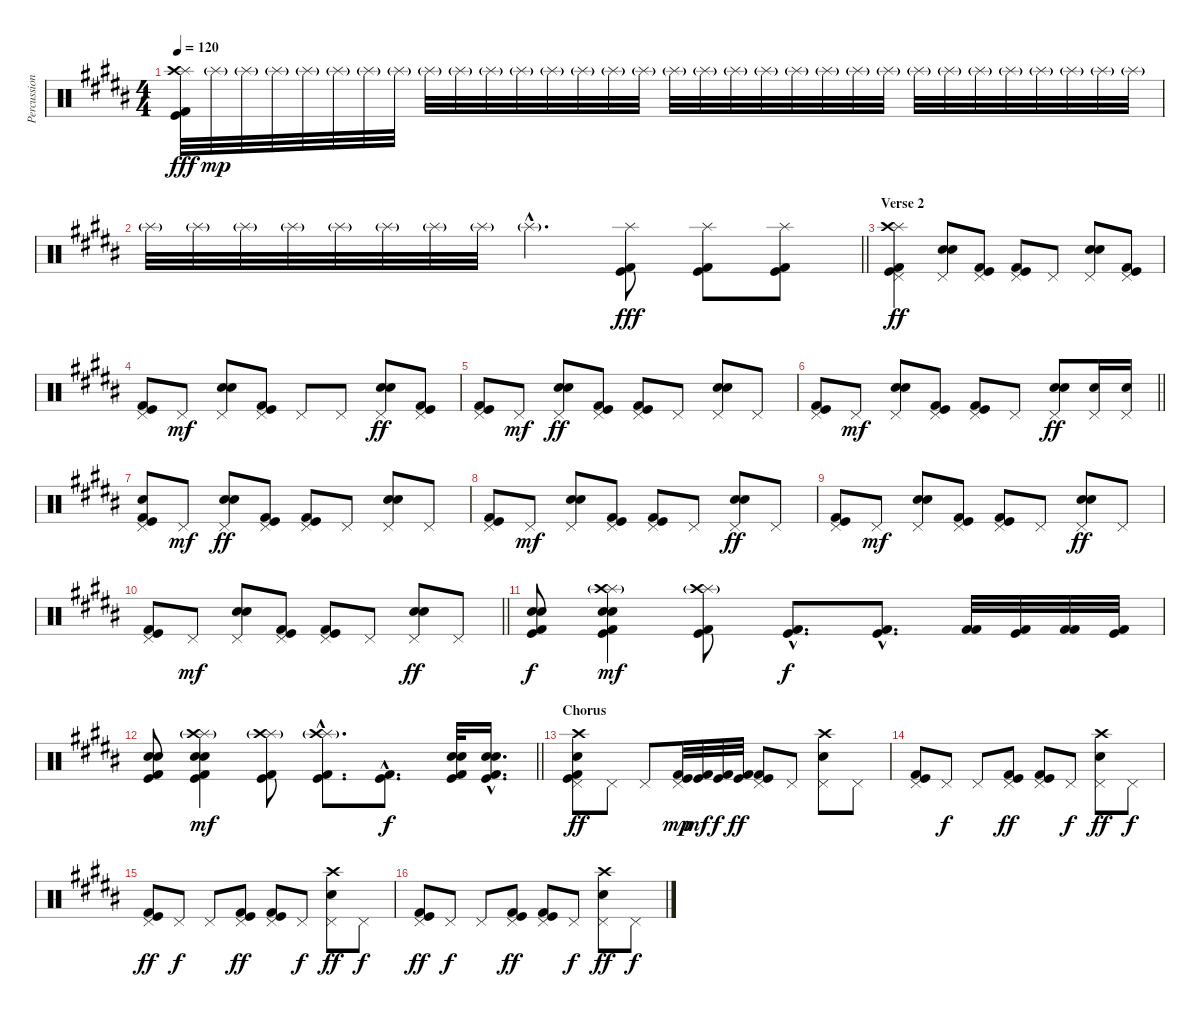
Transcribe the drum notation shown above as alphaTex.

\track ("Percussion" "Percussion") {instrument percussion}
\staff {score}
\articulation defaults
\ts (4 4)
\tempo 120
\clef neutral
\ks b
("Splash (hit)" "Crash high (hit)" "Kick (hit)" "Kick (hit) 2").32{dy fff} "Splash (hit)"{g}.32{dy mp} "Splash (hit)"{g}.32 "Splash (hit)"{g}.32 "Splash (hit)"{g}.32 "Splash (hit)"{g}.32 "Splash (hit)"{g}.32 "Splash (hit)"{g}.32 "Splash (hit)"{g}.32 "Splash (hit)"{g}.32 "Splash (hit)"{g}.32 "Splash (hit)"{g}.32 "Splash (hit)"{g}.32 "Splash (hit)"{g}.32 "Splash (hit)"{g}.32 "Splash (hit)"{g}.32 "Splash (hit)"{g}.32 "Splash (hit)"{g}.32 "Splash (hit)"{g}.32 "Splash (hit)"{g}.32 "Splash (hit)"{g}.32 "Splash (hit)"{g}.32 "Splash (hit)"{g}.32 "Splash (hit)"{g}.32 "Splash (hit)"{g}.32 "Splash (hit)"{g}.32 "Splash (hit)"{g}.32 "Splash (hit)"{g}.32 "Splash (hit)"{g}.32 "Splash (hit)"{g}.32 "Splash (hit)"{g}.32 "Splash (hit)"{g}.32 |
\barLineRight lightlight "Splash (hit)"{g}.32 "Splash (hit)"{g}.32 "Splash (hit)"{g}.32 "Splash (hit)"{g}.32 "Splash (hit)"{g}.32 "Splash (hit)"{g}.32 "Splash (hit)"{g}.32 "Splash (hit)"{g}.32 "Splash (hit)"{g hac}.4{d}
("Splash (hit)" "Kick (hit)" "Kick (hit) 2").8{dy fff} ("Splash (hit)" "Kick (hit)" "Kick (hit) 2").8 ("Splash (hit)" "Kick (hit)" "Kick (hit) 2").8 |
\section ("" "Verse 2")
("Splash (hit)" "Crash high (hit)" "Pedal Hi-Hat (hit)" "Kick (hit)" "Kick (hit) 2").4{dy ff} ("Electric Snare (hit)" "Snare (hit) 2" "Pedal Hi-Hat (hit)").8 ("Pedal Hi-Hat (hit)" "Kick (hit)" "Kick (hit) 2").8 ("Pedal Hi-Hat (hit)" "Kick (hit)" "Kick (hit) 2").8 "Pedal Hi-Hat (hit)".8 ("Electric Snare (hit)" "Snare (hit) 2" "Pedal Hi-Hat (hit)").8 ("Pedal Hi-Hat (hit)" "Kick (hit)" "Kick (hit) 2").8 |
("Pedal Hi-Hat (hit)" "Kick (hit)" "Kick (hit) 2").8 "Pedal Hi-Hat (hit)".8{dy mf} ("Electric Snare (hit)" "Snare (hit) 2" "Pedal Hi-Hat (hit)").8 ("Pedal Hi-Hat (hit)" "Kick (hit)" "Kick (hit) 2").8 "Pedal Hi-Hat (hit)".8 "Pedal Hi-Hat (hit)".8 ("Electric Snare (hit)" "Snare (hit) 2" "Pedal Hi-Hat (hit)").8{dy ff} ("Pedal Hi-Hat (hit)" "Kick (hit)" "Kick (hit) 2").8 |
("Pedal Hi-Hat (hit)" "Kick (hit)" "Kick (hit) 2").8 "Pedal Hi-Hat (hit)".8{dy mf} ("Electric Snare (hit)" "Snare (hit) 2" "Pedal Hi-Hat (hit)").8{dy ff} ("Pedal Hi-Hat (hit)" "Kick (hit)" "Kick (hit) 2").8 ("Pedal Hi-Hat (hit)" "Kick (hit)" "Kick (hit) 2").8 "Pedal Hi-Hat (hit)".8 ("Electric Snare (hit)" "Snare (hit) 2" "Pedal Hi-Hat (hit)").8 "Pedal Hi-Hat (hit)".8 |
\barLineRight lightlight
("Pedal Hi-Hat (hit)" "Kick (hit)" "Kick (hit) 2").8 "Pedal Hi-Hat (hit)".8{dy mf} ("Electric Snare (hit)" "Snare (hit) 2" "Pedal Hi-Hat (hit)").8 ("Pedal Hi-Hat (hit)" "Kick (hit)" "Kick (hit) 2").8 ("Pedal Hi-Hat (hit)" "Kick (hit)" "Kick (hit) 2").8 "Pedal Hi-Hat (hit)".8 ("Electric Snare (hit)" "Snare (hit) 2" "Pedal Hi-Hat (hit)").8{dy ff} ("Snare (hit) 2" "Pedal Hi-Hat (hit)").16 ("Snare (hit) 2" "Pedal Hi-Hat (hit)").16 |
("Snare (hit) 2" "Pedal Hi-Hat (hit)" "Kick (hit)" "Kick (hit) 2").8 "Pedal Hi-Hat (hit)".8{dy mf} ("Electric Snare (hit)" "Snare (hit) 2" "Pedal Hi-Hat (hit)").8{dy ff} ("Pedal Hi-Hat (hit)" "Kick (hit)" "Kick (hit) 2").8 ("Pedal Hi-Hat (hit)" "Kick (hit)" "Kick (hit) 2").8 "Pedal Hi-Hat (hit)".8 ("Electric Snare (hit)" "Snare (hit) 2" "Pedal Hi-Hat (hit)").8 "Pedal Hi-Hat (hit)".8 |
("Pedal Hi-Hat (hit)" "Kick (hit)" "Kick (hit) 2").8 "Pedal Hi-Hat (hit)".8{dy mf} ("Electric Snare (hit)" "Snare (hit) 2" "Pedal Hi-Hat (hit)").8 ("Pedal Hi-Hat (hit)" "Kick (hit)" "Kick (hit) 2").8 ("Pedal Hi-Hat (hit)" "Kick (hit)" "Kick (hit) 2").8 "Pedal Hi-Hat (hit)".8 ("Electric Snare (hit)" "Snare (hit) 2" "Pedal Hi-Hat (hit)").8{dy ff} "Pedal Hi-Hat (hit)".8 |
("Pedal Hi-Hat (hit)" "Kick (hit)" "Kick (hit) 2").8 "Pedal Hi-Hat (hit)".8{dy mf} ("Electric Snare (hit)" "Snare (hit) 2" "Pedal Hi-Hat (hit)").8 ("Pedal Hi-Hat (hit)" "Kick (hit)" "Kick (hit) 2").8 ("Pedal Hi-Hat (hit)" "Kick (hit)" "Kick (hit) 2").8 "Pedal Hi-Hat (hit)".8 ("Electric Snare (hit)" "Snare (hit) 2" "Pedal Hi-Hat (hit)").8{dy ff} "Pedal Hi-Hat (hit)".8 |
\barLineRight lightlight
("Pedal Hi-Hat (hit)" "Kick (hit)" "Kick (hit) 2").8 "Pedal Hi-Hat (hit)".8{dy mf} ("Electric Snare (hit)" "Snare (hit) 2" "Pedal Hi-Hat (hit)").8 ("Pedal Hi-Hat (hit)" "Kick (hit)" "Kick (hit) 2").8 ("Pedal Hi-Hat (hit)" "Kick (hit)" "Kick (hit) 2").8 "Pedal Hi-Hat (hit)".8 ("Electric Snare (hit)" "Snare (hit) 2" "Pedal Hi-Hat (hit)").8{dy ff} "Pedal Hi-Hat (hit)".8 |
("Electric Snare (hit)" "Snare (hit) 2" "Kick (hit)" "Kick (hit) 2").8{dy f} ("Splash (hit)"{g} "Crash high (hit)"{g} "Electric Snare (hit)" "Snare (hit) 2" "Kick (hit)" "Kick (hit) 2").4{dy mf} ("Splash (hit)"{g} "Crash high (hit)"{g} "Kick (hit)" "Kick (hit) 2").8 ("Kick (hit)"{hac} "Kick (hit) 2"{hac}).8{d dy f} ("Kick (hit)"{hac} "Kick (hit) 2"{hac}).8{d} ("Kick (hit) 2" "Kick (hit) 2").32 ("Kick (hit)" "Kick (hit) 2").32 ("Kick (hit) 2" "Kick (hit) 2").32 ("Kick (hit)" "Kick (hit) 2").32 |
\barLineRight lightlight
("Electric Snare (hit)" "Snare (hit) 2" "Kick (hit)" "Kick (hit) 2").8 ("Splash (hit)"{g} "Crash high (hit)"{g} "Electric Snare (hit)" "Snare (hit) 2" "Kick (hit)" "Kick (hit) 2").4{dy mf} ("Splash (hit)"{g} "Crash high (hit)"{g} "Kick (hit)" "Kick (hit) 2").8 ("Splash (hit)"{g hac} "Crash high (hit)"{g hac} "Kick (hit)"{hac} "Kick (hit) 2"{hac}).8{d} ("Kick (hit)"{hac} "Kick (hit) 2"{hac}).8{d dy f} ("Electric Snare (hit)" "Snare (hit) 2" "Kick (hit)" "Kick (hit) 2").32 ("Electric Snare (hit)"{hac} "Snare (hit) 2"{hac} "Kick (hit)"{hac} "Kick (hit) 2"{hac}).16{d} |
\section ("" "Chorus")
("Crash high (hit)" "Snare (hit) 2" "Pedal Hi-Hat (hit)" "Kick (hit)" "Kick (hit) 2").8{dy ff} "Pedal Hi-Hat (hit)".8 "Pedal Hi-Hat (hit)".8 ("Pedal Hi-Hat (hit)" "Kick (hit)" "Kick (hit) 2").32{dy mp} ("Kick (hit)" "Kick (hit) 2").32{dy mf} ("Kick (hit)" "Kick (hit) 2").32{dy f} ("Kick (hit)" "Kick (hit) 2").32{dy ff} ("Pedal Hi-Hat (hit)" "Kick (hit)" "Kick (hit) 2").8 "Pedal Hi-Hat (hit)".8 ("Crash high (hit)" "Snare (hit) 2" "Pedal Hi-Hat (hit)").8 "Pedal Hi-Hat (hit)".8 |
("Pedal Hi-Hat (hit)" "Kick (hit)" "Kick (hit) 2").8 "Pedal Hi-Hat (hit)".8{dy f} "Pedal Hi-Hat (hit)".8 ("Pedal Hi-Hat (hit)" "Kick (hit)" "Kick (hit) 2").8{dy ff} ("Pedal Hi-Hat (hit)" "Kick (hit)" "Kick (hit) 2").8 "Pedal Hi-Hat (hit)".8{dy f} ("Crash high (hit)" "Snare (hit) 2" "Pedal Hi-Hat (hit)").8{dy ff} "Pedal Hi-Hat (hit)".8{dy f} |
("Pedal Hi-Hat (hit)" "Kick (hit)" "Kick (hit) 2").8{dy ff} "Pedal Hi-Hat (hit)".8{dy f} "Pedal Hi-Hat (hit)".8 ("Pedal Hi-Hat (hit)" "Kick (hit)" "Kick (hit) 2").8{dy ff} ("Pedal Hi-Hat (hit)" "Kick (hit)" "Kick (hit) 2").8 "Pedal Hi-Hat (hit)".8{dy f} ("Crash high (hit)" "Snare (hit) 2" "Pedal Hi-Hat (hit)").8{dy ff} "Pedal Hi-Hat (hit)".8{dy f} |
("Pedal Hi-Hat (hit)" "Kick (hit)" "Kick (hit) 2").8{dy ff} "Pedal Hi-Hat (hit)".8{dy f} "Pedal Hi-Hat (hit)".8 ("Pedal Hi-Hat (hit)" "Kick (hit)" "Kick (hit) 2").8{dy ff} ("Pedal Hi-Hat (hit)" "Kick (hit)" "Kick (hit) 2").8 "Pedal Hi-Hat (hit)".8{dy f} ("Crash high (hit)" "Snare (hit) 2" "Pedal Hi-Hat (hit)").8{dy ff} "Pedal Hi-Hat (hit)".8{dy f}
